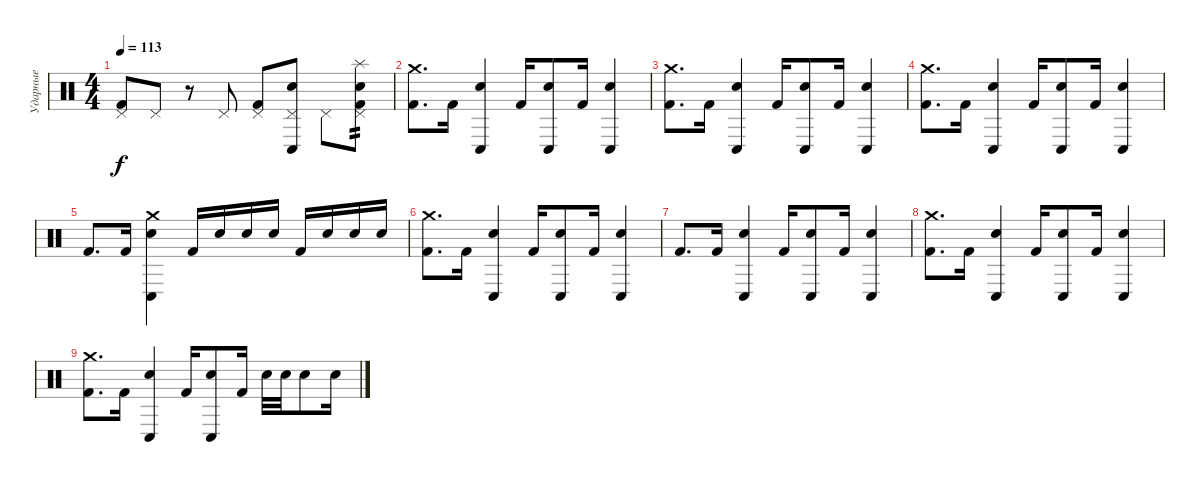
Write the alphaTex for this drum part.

\track ("Ударные" "Ударные") {instrument percussion}
\staff {score}
\articulation defaults
\ts (4 4)
\tempo 113
\clef neutral
\ks c
("Pedal Hi-Hat (hit)" "Kick (hit) 2").8{dy f} "Pedal Hi-Hat (hit)".8 r.8 "Pedal Hi-Hat (hit)".8 ("Pedal Hi-Hat (hit)" "Kick (hit) 2").8 ("Pedal Hi-Hat (hit)" "Electric Snare (hit)" "Conga low (hit)").8 "Pedal Hi-Hat (hit)".8 ("Pedal Hi-Hat (hit)" "Splash (hit)" "Electric Snare (hit)" "Kick (hit) 2").8{tp 2} |
("Crash medium (hit)" "Kick (hit) 2").8{d} "Kick (hit) 2".16 ("Electric Snare (hit)" "Conga low (hit)").4 "Kick (hit) 2".16 ("Electric Snare (hit)" "Conga low (hit)").8 "Kick (hit) 2".16 ("Electric Snare (hit)" "Conga low (hit)").4 |
("Crash medium (hit)" "Kick (hit) 2").8{d} "Kick (hit) 2".16 ("Electric Snare (hit)" "Conga low (hit)").4 "Kick (hit) 2".16 ("Electric Snare (hit)" "Conga low (hit)").8 "Kick (hit) 2".16 ("Electric Snare (hit)" "Conga low (hit)").4 |
("Crash medium (hit)" "Kick (hit) 2").8{d} "Kick (hit) 2".16 ("Electric Snare (hit)" "Conga low (hit)").4 "Kick (hit) 2".16 ("Electric Snare (hit)" "Conga low (hit)").8 "Kick (hit) 2".16 ("Electric Snare (hit)" "Conga low (hit)").4 |
"Kick (hit) 2".8{d} "Kick (hit) 2".16 ("Crash medium (hit)" "Electric Snare (hit)" "Conga low (hit)").4 "Kick (hit) 2".16 "Electric Snare (hit)".16 "Electric Snare (hit)".16 "Electric Snare (hit)".16 "Kick (hit) 2".16 "Electric Snare (hit)".16 "Electric Snare (hit)".16 "Electric Snare (hit)".16 |
("Crash medium (hit)" "Kick (hit) 2").8{d} "Kick (hit) 2".16 ("Electric Snare (hit)" "Conga low (hit)").4 "Kick (hit) 2".16 ("Electric Snare (hit)" "Conga low (hit)").8 "Kick (hit) 2".16 ("Electric Snare (hit)" "Conga low (hit)").4 |
"Kick (hit) 2".8{d} "Kick (hit) 2".16 ("Electric Snare (hit)" "Conga low (hit)").4 "Kick (hit) 2".16 ("Electric Snare (hit)" "Conga low (hit)").8 "Kick (hit) 2".16 ("Electric Snare (hit)" "Conga low (hit)").4 |
("Crash medium (hit)" "Kick (hit) 2").8{d} "Kick (hit) 2".16 ("Electric Snare (hit)" "Conga low (hit)").4 "Kick (hit) 2".16 ("Electric Snare (hit)" "Conga low (hit)").8 "Kick (hit) 2".16 ("Electric Snare (hit)" "Conga low (hit)").4 |
("Crash medium (hit)" "Kick (hit) 2").8{d} "Kick (hit) 2".16 ("Electric Snare (hit)" "Conga low (hit)").4 "Kick (hit) 2".16 ("Electric Snare (hit)" "Conga low (hit)").8 "Kick (hit) 2".16 "Electric Snare (hit)".32 "Electric Snare (hit)".32 "Electric Snare (hit)".8 "Electric Snare (hit)".16
